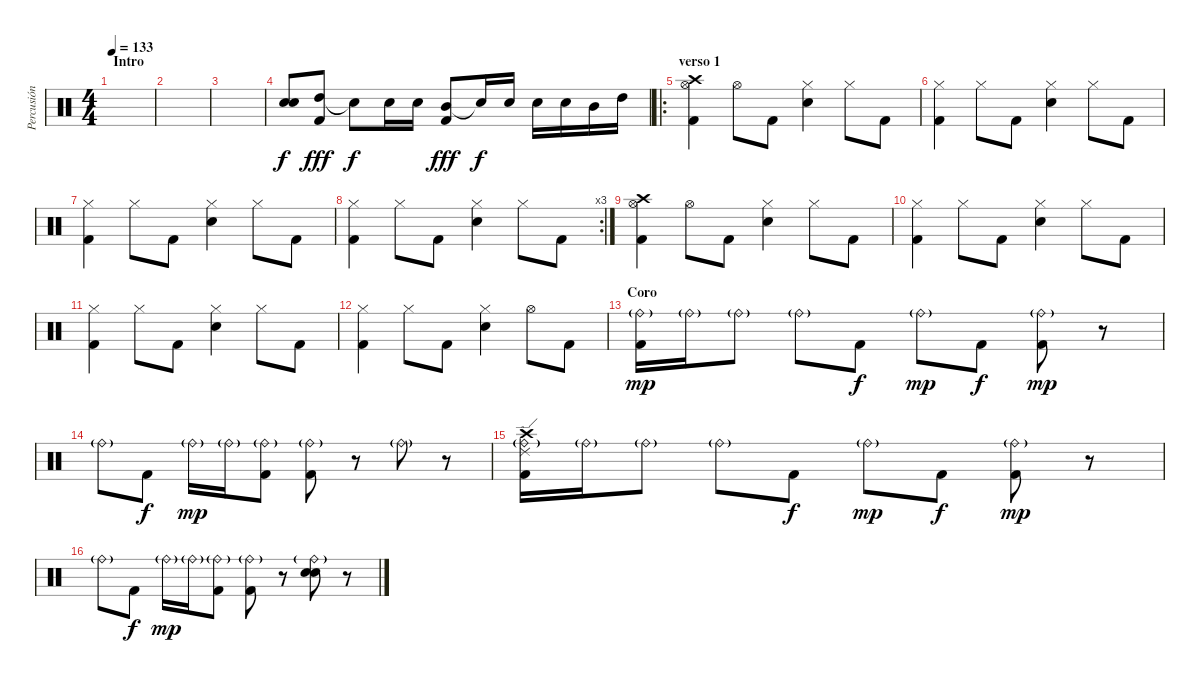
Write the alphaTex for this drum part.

\track ("Percusión" "Percusión") {instrument percussion}
\staff {score}
\articulation defaults
\ts (4 4)
\section ("" "Intro")
\tempo 133
\clef neutral
\ks c
|
|
|
("Snare (hit) 2" "Electric Snare (hit)").8 ("High Tom (hit)" "Kick (hit) 2").8{dy fff} "Snare (hit)"{t}.8{dy f} "Electric Snare (hit)".16 "Electric Snare (hit)".16 ("Mid Tom (hit)" "Kick (hit) 2").8{dy fff} "Snare (hit)"{t}.16{dy f} "Electric Snare (hit)".16 "Electric Snare (hit)".16 "Electric Snare (hit)".16 "Mid Tom (hit)".16 "High Tom (hit)".16 |
\ro
\section ("" "verso 1")
("Crash high (hit)" "Hi-Hat (open)" "Kick (hit) 2").4 "Hi-Hat (open)".8 "Kick (hit) 2".8 ("Electric Snare (hit)" "Hi-Hat (closed)").4 "Hi-Hat (closed)".8 "Kick (hit) 2".8 |
("Hi-Hat (closed)" "Kick (hit) 2").4 "Hi-Hat (closed)".8 "Kick (hit) 2".8 ("Electric Snare (hit)" "Hi-Hat (closed)").4 "Hi-Hat (closed)".8 "Kick (hit) 2".8 |
("Hi-Hat (closed)" "Kick (hit) 2").4 "Hi-Hat (closed)".8 "Kick (hit) 2".8 ("Electric Snare (hit)" "Hi-Hat (closed)").4 "Hi-Hat (closed)".8 "Kick (hit) 2".8 |
\rc 3
("Hi-Hat (closed)" "Kick (hit) 2").4 "Hi-Hat (closed)".8 "Kick (hit) 2".8 ("Electric Snare (hit)" "Hi-Hat (closed)").4 "Hi-Hat (closed)".8 "Kick (hit) 2".8 |
("Crash high (hit)" "Hi-Hat (open)" "Kick (hit) 2").4 "Hi-Hat (open)".8 "Kick (hit) 2".8 ("Electric Snare (hit)" "Hi-Hat (closed)").4 "Hi-Hat (closed)".8 "Kick (hit) 2".8 |
("Hi-Hat (closed)" "Kick (hit) 2").4 "Hi-Hat (closed)".8 "Kick (hit) 2".8 ("Electric Snare (hit)" "Hi-Hat (closed)").4 "Hi-Hat (closed)".8 "Kick (hit) 2".8 |
("Hi-Hat (closed)" "Kick (hit) 2").4 "Hi-Hat (closed)".8 "Kick (hit) 2".8 ("Electric Snare (hit)" "Hi-Hat (closed)").4 "Hi-Hat (closed)".8 "Kick (hit) 2".8 |
("Hi-Hat (closed)" "Kick (hit) 2").4 "Hi-Hat (closed)".8 "Kick (hit) 2".8 ("Electric Snare (hit)" "Hi-Hat (closed)").4 "Hi-Hat (open)".8 "Kick (hit) 2".8 |
\section ("" "Coro")
("Ride (bell)"{g} "Kick (hit) 2").16{dy mp} "Ride (bell)"{g}.16 "Ride (bell)"{g}.8 "Ride (bell)"{g}.8 "Kick (hit) 2".8{dy f} "Ride (bell)"{g}.8{dy mp} "Kick (hit) 2".8{dy f} ("Ride (bell)"{g} "Kick (hit) 2").8{dy mp} r.8 |
"Ride (bell)"{g}.8 "Kick (hit) 2".8{dy f} "Ride (bell)"{g}.16{dy mp} "Ride (bell)"{g}.16 ("Ride (bell)"{g} "Kick (hit) 2").8 ("Ride (bell)"{g} "Kick (hit) 2").8 r.8 "Ride (bell)"{g}.8 r.8 |
("Crash high (hit)" "Ride (edge) 2" "Ride (bell)"{g} "Kick (hit) 2").16 "Ride (bell)"{g}.16 "Ride (bell)"{g}.8 "Ride (bell)"{g}.8 "Kick (hit) 2".8{dy f} "Ride (bell)"{g}.8{dy mp} "Kick (hit) 2".8{dy f} ("Ride (bell)"{g} "Kick (hit) 2").8{dy mp} r.8 |
"Ride (bell)"{g}.8 "Kick (hit) 2".8{dy f} "Ride (bell)"{g}.16{dy mp} "Ride (bell)"{g}.16 ("Ride (bell)"{g} "Kick (hit) 2").8 ("Ride (bell)"{g} "Kick (hit) 2").8 r.8 ("Ride (bell)"{g} "Electric Snare (hit)" "Electric Snare (hit)").8 r.8
